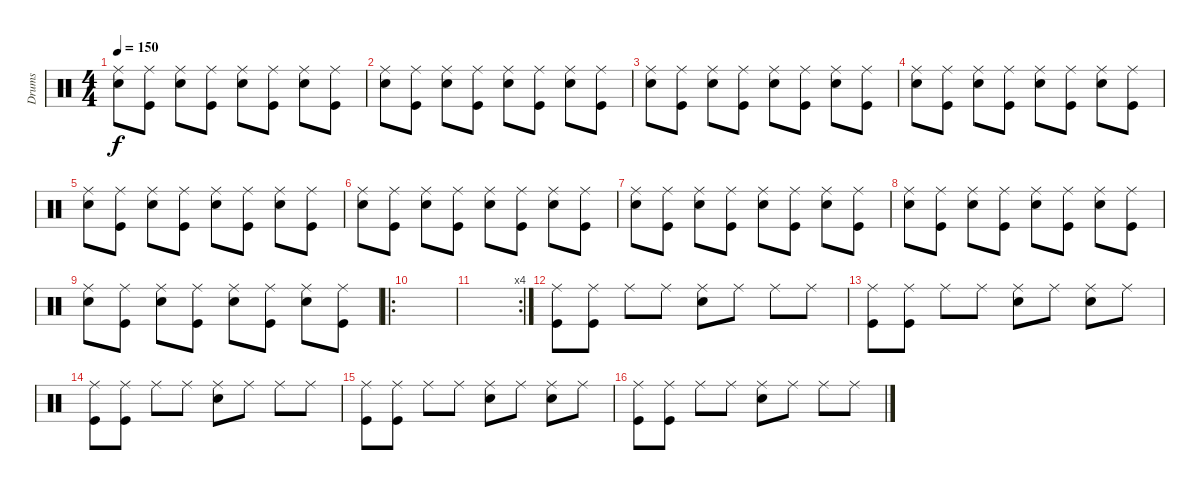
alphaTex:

\track ("Drums" "Drums") {instrument percussion}
\staff {score}
\articulation defaults
\ts (4 4)
\tempo 150
\clef neutral
\ks c
("Ride (middle)" "Electric Snare (hit)").8{dy f} ("Ride (middle)" "Kick (hit)").8 ("Ride (middle)" "Electric Snare (hit)").8 ("Ride (middle)" "Kick (hit)").8 ("Ride (middle)" "Electric Snare (hit)").8 ("Ride (middle)" "Kick (hit)").8 ("Ride (middle)" "Electric Snare (hit)").8 ("Ride (middle)" "Kick (hit)").8 |
("Ride (middle)" "Electric Snare (hit)").8 ("Ride (middle)" "Kick (hit)").8 ("Ride (middle)" "Electric Snare (hit)").8 ("Ride (middle)" "Kick (hit)").8 ("Ride (middle)" "Electric Snare (hit)").8 ("Ride (middle)" "Kick (hit)").8 ("Ride (middle)" "Electric Snare (hit)").8 ("Ride (middle)" "Kick (hit)").8 |
("Ride (middle)" "Electric Snare (hit)").8 ("Ride (middle)" "Kick (hit)").8 ("Ride (middle)" "Electric Snare (hit)").8 ("Ride (middle)" "Kick (hit)").8 ("Ride (middle)" "Electric Snare (hit)").8 ("Ride (middle)" "Kick (hit)").8 ("Ride (middle)" "Electric Snare (hit)").8 ("Ride (middle)" "Kick (hit)").8 |
("Ride (middle)" "Electric Snare (hit)").8 ("Ride (middle)" "Kick (hit)").8 ("Ride (middle)" "Electric Snare (hit)").8 ("Ride (middle)" "Kick (hit)").8 ("Ride (middle)" "Electric Snare (hit)").8 ("Ride (middle)" "Kick (hit)").8 ("Ride (middle)" "Electric Snare (hit)").8 ("Ride (middle)" "Kick (hit)").8 |
("Ride (middle)" "Electric Snare (hit)").8 ("Ride (middle)" "Kick (hit)").8 ("Ride (middle)" "Electric Snare (hit)").8 ("Ride (middle)" "Kick (hit)").8 ("Ride (middle)" "Electric Snare (hit)").8 ("Ride (middle)" "Kick (hit)").8 ("Ride (middle)" "Electric Snare (hit)").8 ("Ride (middle)" "Kick (hit)").8 |
("Ride (middle)" "Electric Snare (hit)").8 ("Ride (middle)" "Kick (hit)").8 ("Ride (middle)" "Electric Snare (hit)").8 ("Ride (middle)" "Kick (hit)").8 ("Ride (middle)" "Electric Snare (hit)").8 ("Ride (middle)" "Kick (hit)").8 ("Ride (middle)" "Electric Snare (hit)").8 ("Ride (middle)" "Kick (hit)").8 |
("Ride (middle)" "Electric Snare (hit)").8 ("Ride (middle)" "Kick (hit)").8 ("Ride (middle)" "Electric Snare (hit)").8 ("Ride (middle)" "Kick (hit)").8 ("Ride (middle)" "Electric Snare (hit)").8 ("Ride (middle)" "Kick (hit)").8 ("Ride (middle)" "Electric Snare (hit)").8 ("Ride (middle)" "Kick (hit)").8 |
("Ride (middle)" "Electric Snare (hit)").8 ("Ride (middle)" "Kick (hit)").8 ("Ride (middle)" "Electric Snare (hit)").8 ("Ride (middle)" "Kick (hit)").8 ("Ride (middle)" "Electric Snare (hit)").8 ("Ride (middle)" "Kick (hit)").8 ("Ride (middle)" "Electric Snare (hit)").8 ("Ride (middle)" "Kick (hit)").8 |
("Ride (middle)" "Electric Snare (hit)").8 ("Ride (middle)" "Kick (hit)").8 ("Ride (middle)" "Electric Snare (hit)").8 ("Ride (middle)" "Kick (hit)").8 ("Ride (middle)" "Electric Snare (hit)").8 ("Ride (middle)" "Kick (hit)").8 ("Ride (middle)" "Electric Snare (hit)").8 ("Ride (middle)" "Kick (hit)").8 |
\ro
|
\rc 4
|
("Ride (middle)" "Kick (hit)").8 ("Ride (middle)" "Kick (hit)").8 "Ride (middle)".8 "Ride (middle)".8 ("Ride (middle)" "Electric Snare (hit)").8 "Ride (middle)".8 "Ride (middle)".8 "Ride (middle)".8 |
("Ride (middle)" "Kick (hit)").8 ("Ride (middle)" "Kick (hit)").8 "Ride (middle)".8 "Ride (middle)".8 ("Ride (middle)" "Electric Snare (hit)").8 "Ride (middle)".8 ("Ride (middle)" "Electric Snare (hit)").8 "Ride (middle)".8 |
("Ride (middle)" "Kick (hit)").8 ("Ride (middle)" "Kick (hit)").8 "Ride (middle)".8 "Ride (middle)".8 ("Ride (middle)" "Electric Snare (hit)").8 "Ride (middle)".8 "Ride (middle)".8 "Ride (middle)".8 |
("Ride (middle)" "Kick (hit)").8 ("Ride (middle)" "Kick (hit)").8 "Ride (middle)".8 "Ride (middle)".8 ("Ride (middle)" "Electric Snare (hit)").8 "Ride (middle)".8 ("Ride (middle)" "Electric Snare (hit)").8 "Ride (middle)".8 |
("Ride (middle)" "Kick (hit)").8 ("Ride (middle)" "Kick (hit)").8 "Ride (middle)".8 "Ride (middle)".8 ("Ride (middle)" "Electric Snare (hit)").8 "Ride (middle)".8 "Ride (middle)".8 "Ride (middle)".8
